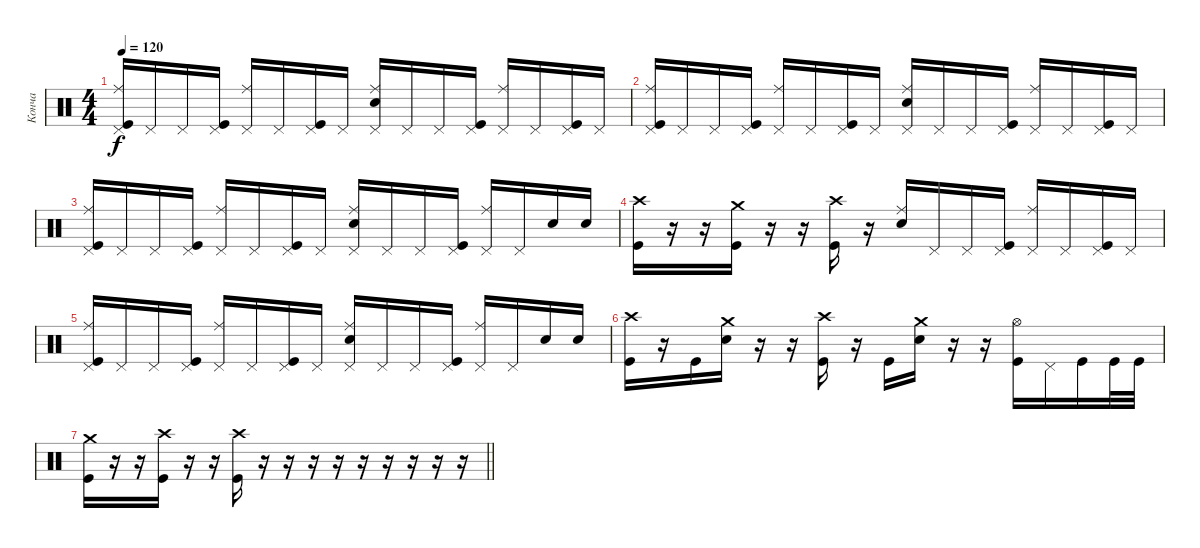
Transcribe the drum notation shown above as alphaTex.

\track ("Конча" "Конча") {instrument percussion}
\staff {score}
\articulation defaults
\ts (4 4)
\tempo 120
\clef neutral
\ks c
("Ride (middle)" "Pedal Hi-Hat (hit)" "Kick (hit)").16{dy f} "Pedal Hi-Hat (hit)".16 "Pedal Hi-Hat (hit)".16 ("Pedal Hi-Hat (hit)" "Kick (hit)").16 ("Ride (middle)" "Pedal Hi-Hat (hit)").16 "Pedal Hi-Hat (hit)".16 ("Pedal Hi-Hat (hit)" "Kick (hit)").16 "Pedal Hi-Hat (hit)".16 ("Ride (middle)" "Pedal Hi-Hat (hit)" "Electric Snare (hit)").16 "Pedal Hi-Hat (hit)".16 "Pedal Hi-Hat (hit)".16 ("Pedal Hi-Hat (hit)" "Kick (hit)").16 ("Ride (middle)" "Pedal Hi-Hat (hit)").16 "Pedal Hi-Hat (hit)".16 ("Pedal Hi-Hat (hit)" "Kick (hit)").16 "Pedal Hi-Hat (hit)".16 |
("Ride (middle)" "Pedal Hi-Hat (hit)" "Kick (hit)").16 "Pedal Hi-Hat (hit)".16 "Pedal Hi-Hat (hit)".16 ("Pedal Hi-Hat (hit)" "Kick (hit)").16 ("Ride (middle)" "Pedal Hi-Hat (hit)").16 "Pedal Hi-Hat (hit)".16 ("Pedal Hi-Hat (hit)" "Kick (hit)").16 "Pedal Hi-Hat (hit)".16 ("Ride (middle)" "Pedal Hi-Hat (hit)" "Electric Snare (hit)").16 "Pedal Hi-Hat (hit)".16 "Pedal Hi-Hat (hit)".16 ("Pedal Hi-Hat (hit)" "Kick (hit)").16 ("Ride (middle)" "Pedal Hi-Hat (hit)").16 "Pedal Hi-Hat (hit)".16 ("Pedal Hi-Hat (hit)" "Kick (hit)").16 "Pedal Hi-Hat (hit)".16 |
("Ride (middle)" "Pedal Hi-Hat (hit)" "Kick (hit)").16 "Pedal Hi-Hat (hit)".16 "Pedal Hi-Hat (hit)".16 ("Pedal Hi-Hat (hit)" "Kick (hit)").16 ("Ride (middle)" "Pedal Hi-Hat (hit)").16 "Pedal Hi-Hat (hit)".16 ("Pedal Hi-Hat (hit)" "Kick (hit)").16 "Pedal Hi-Hat (hit)".16 ("Ride (middle)" "Pedal Hi-Hat (hit)" "Electric Snare (hit)").16 "Pedal Hi-Hat (hit)".16 "Pedal Hi-Hat (hit)".16 ("Pedal Hi-Hat (hit)" "Kick (hit)").16 ("Ride (middle)" "Pedal Hi-Hat (hit)").16 "Pedal Hi-Hat (hit)".16 "Electric Snare (hit)".16 "Electric Snare (hit)".16 |
("Crash high (hit)" "Kick (hit)").16 r.16 r.16 ("Crash medium (hit)" "Kick (hit)").16 r.16 r.16 ("Crash high (hit)" "Kick (hit)").16 r.16 ("Ride (middle)" "Electric Snare (hit)").16 "Pedal Hi-Hat (hit)".16 "Pedal Hi-Hat (hit)".16 ("Pedal Hi-Hat (hit)" "Kick (hit)").16 ("Pedal Hi-Hat (hit)" "Ride (middle)").16 "Pedal Hi-Hat (hit)".16 ("Pedal Hi-Hat (hit)" "Kick (hit)").16 "Pedal Hi-Hat (hit)".16 |
("Ride (middle)" "Pedal Hi-Hat (hit)" "Kick (hit)").16 "Pedal Hi-Hat (hit)".16 "Pedal Hi-Hat (hit)".16 ("Pedal Hi-Hat (hit)" "Kick (hit)").16 ("Ride (middle)" "Pedal Hi-Hat (hit)").16 "Pedal Hi-Hat (hit)".16 ("Pedal Hi-Hat (hit)" "Kick (hit)").16 "Pedal Hi-Hat (hit)".16 ("Ride (middle)" "Pedal Hi-Hat (hit)" "Electric Snare (hit)").16 "Pedal Hi-Hat (hit)".16 "Pedal Hi-Hat (hit)".16 ("Pedal Hi-Hat (hit)" "Kick (hit)").16 ("Ride (middle)" "Pedal Hi-Hat (hit)").16 "Pedal Hi-Hat (hit)".16 "Electric Snare (hit)".16 "Electric Snare (hit)".16 |
("Crash high (hit)" "Kick (hit)").16 r.16 "Kick (hit)".16 ("Crash medium (hit)" "Electric Snare (hit)").16 r.16 r.16 ("Crash high (hit)" "Kick (hit)").16 r.16 "Kick (hit)".16 ("Crash medium (hit)" "Electric Snare (hit)").16 r.16 r.16 ("Hi-Hat (open)" "Kick (hit)").16 "Pedal Hi-Hat (hit)".16 "Kick (hit)".16 "Kick (hit)".32 "Kick (hit)".32 |
\barLineRight lightlight
("Crash medium (hit)" "Kick (hit)").16 r.16 r.16 ("Crash high (hit)" "Kick (hit)").16 r.16 r.16 ("Crash high (hit)" "Kick (hit)").16 r.16 r.16 r.16 r.16 r.16 r.16 r.16 r.16 r.16
